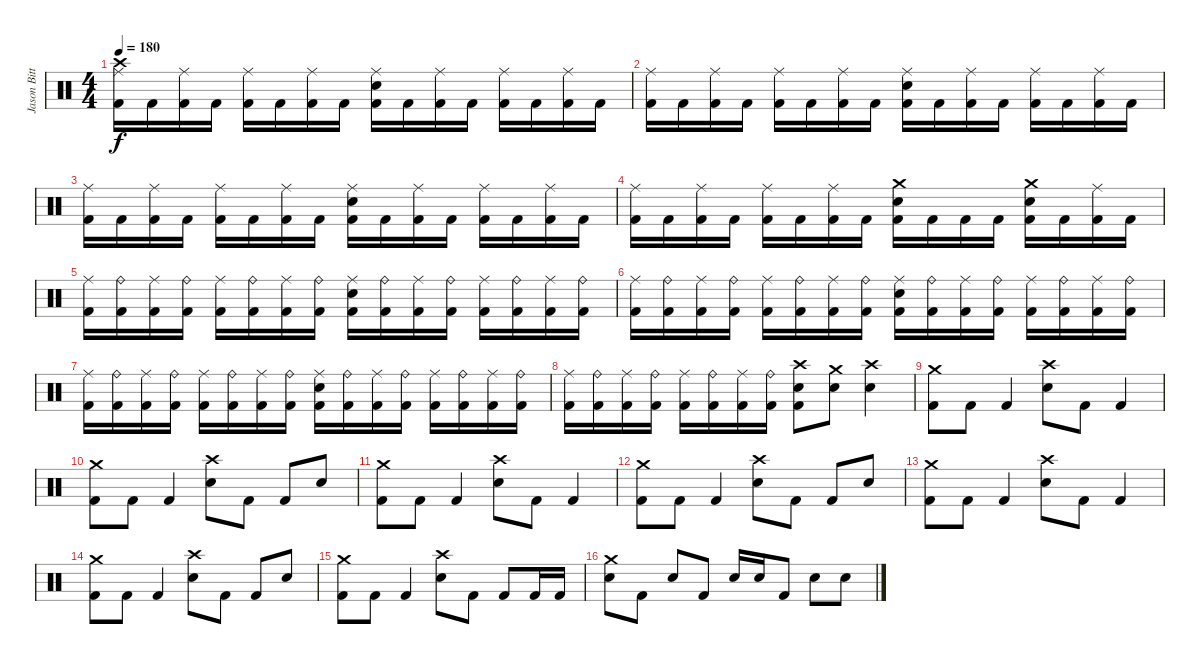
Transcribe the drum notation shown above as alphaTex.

\track ("Jason Bittner" "Jason Bitt") {instrument percussion}
\staff {score}
\articulation defaults
\ts (4 4)
\tempo 180
\clef neutral
\ks c
("Kick (hit) 2" "Crash high (hit)" "Ride (middle)").16{dy f} "Kick (hit) 2".16 ("Kick (hit) 2" "Ride (middle)").16 "Kick (hit) 2".16 ("Kick (hit) 2" "Ride (middle)").16 "Kick (hit) 2".16 ("Kick (hit) 2" "Ride (middle)").16 "Kick (hit) 2".16 ("Kick (hit) 2" "Electric Snare (hit)" "Ride (middle)").16 "Kick (hit) 2".16 ("Kick (hit) 2" "Ride (middle)").16 "Kick (hit) 2".16 ("Kick (hit) 2" "Ride (middle)").16 "Kick (hit) 2".16 ("Kick (hit) 2" "Ride (middle)").16 "Kick (hit) 2".16 |
("Kick (hit) 2" "Ride (middle)").16 "Kick (hit) 2".16 ("Kick (hit) 2" "Ride (middle)").16 "Kick (hit) 2".16 ("Kick (hit) 2" "Ride (middle)").16 "Kick (hit) 2".16 ("Kick (hit) 2" "Ride (middle)").16 "Kick (hit) 2".16 ("Kick (hit) 2" "Electric Snare (hit)" "Ride (middle)").16 "Kick (hit) 2".16 ("Kick (hit) 2" "Ride (middle)").16 "Kick (hit) 2".16 ("Kick (hit) 2" "Ride (middle)").16 "Kick (hit) 2".16 ("Kick (hit) 2" "Ride (middle)").16 "Kick (hit) 2".16 |
("Kick (hit) 2" "Ride (middle)").16 "Kick (hit) 2".16 ("Kick (hit) 2" "Ride (middle)").16 "Kick (hit) 2".16 ("Kick (hit) 2" "Ride (middle)").16 "Kick (hit) 2".16 ("Kick (hit) 2" "Ride (middle)").16 "Kick (hit) 2".16 ("Kick (hit) 2" "Electric Snare (hit)" "Ride (middle)").16 "Kick (hit) 2".16 ("Kick (hit) 2" "Ride (middle)").16 "Kick (hit) 2".16 ("Kick (hit) 2" "Ride (middle)").16 "Kick (hit) 2".16 ("Kick (hit) 2" "Ride (middle)").16 "Kick (hit) 2".16 |
("Kick (hit) 2" "Ride (middle)").16 "Kick (hit) 2".16 ("Kick (hit) 2" "Ride (middle)").16 "Kick (hit) 2".16 ("Kick (hit) 2" "Ride (middle)").16 "Kick (hit) 2".16 ("Kick (hit) 2" "Ride (middle)").16 "Kick (hit) 2".16 ("Kick (hit) 2" "Electric Snare (hit)" "Crash medium (hit)").16 "Kick (hit) 2".16 "Kick (hit) 2".16 "Kick (hit) 2".16 ("Kick (hit) 2" "Electric Snare (hit)" "Crash medium (hit)").16 "Kick (hit) 2".16 ("Kick (hit) 2" "Ride (middle)").16 "Kick (hit) 2".16 |
("Kick (hit) 2" "Ride (middle)").16 ("Kick (hit) 2" "Ride (bell)").16 ("Kick (hit) 2" "Ride (middle)").16 ("Kick (hit) 2" "Ride (bell)").16 ("Kick (hit) 2" "Ride (middle)").16 ("Kick (hit) 2" "Ride (bell)").16 ("Kick (hit) 2" "Ride (middle)").16 ("Kick (hit) 2" "Ride (bell)").16 ("Kick (hit) 2" "Electric Snare (hit)" "Ride (middle)").16 ("Kick (hit) 2" "Ride (bell)").16 ("Kick (hit) 2" "Ride (middle)").16 ("Kick (hit) 2" "Ride (bell)").16 ("Kick (hit) 2" "Ride (middle)").16 ("Kick (hit) 2" "Ride (bell)").16 ("Kick (hit) 2" "Ride (middle)").16 ("Kick (hit) 2" "Ride (bell)").16 |
("Kick (hit) 2" "Ride (middle)").16 ("Kick (hit) 2" "Ride (bell)").16 ("Kick (hit) 2" "Ride (middle)").16 ("Kick (hit) 2" "Ride (bell)").16 ("Kick (hit) 2" "Ride (middle)").16 ("Kick (hit) 2" "Ride (bell)").16 ("Kick (hit) 2" "Ride (middle)").16 ("Kick (hit) 2" "Ride (bell)").16 ("Kick (hit) 2" "Electric Snare (hit)" "Ride (middle)").16 ("Kick (hit) 2" "Ride (bell)").16 ("Kick (hit) 2" "Ride (middle)").16 ("Kick (hit) 2" "Ride (bell)").16 ("Kick (hit) 2" "Ride (middle)").16 ("Kick (hit) 2" "Ride (bell)").16 ("Kick (hit) 2" "Ride (middle)").16 ("Kick (hit) 2" "Ride (bell)").16 |
("Kick (hit) 2" "Ride (middle)").16 ("Kick (hit) 2" "Ride (bell)").16 ("Kick (hit) 2" "Ride (middle)").16 ("Kick (hit) 2" "Ride (bell)").16 ("Kick (hit) 2" "Ride (middle)").16 ("Kick (hit) 2" "Ride (bell)").16 ("Kick (hit) 2" "Ride (middle)").16 ("Kick (hit) 2" "Ride (bell)").16 ("Kick (hit) 2" "Electric Snare (hit)" "Ride (middle)").16 ("Kick (hit) 2" "Ride (bell)").16 ("Kick (hit) 2" "Ride (middle)").16 ("Kick (hit) 2" "Ride (bell)").16 ("Kick (hit) 2" "Ride (middle)").16 ("Kick (hit) 2" "Ride (bell)").16 ("Kick (hit) 2" "Ride (middle)").16 ("Kick (hit) 2" "Ride (bell)").16 |
("Kick (hit) 2" "Ride (middle)").16 ("Kick (hit) 2" "Ride (bell)").16 ("Kick (hit) 2" "Ride (middle)").16 ("Kick (hit) 2" "Ride (bell)").16 ("Kick (hit) 2" "Ride (middle)").16 ("Kick (hit) 2" "Ride (bell)").16 ("Kick (hit) 2" "Ride (middle)").16 ("Kick (hit) 2" "Ride (bell)").16 ("Kick (hit) 2" "Electric Snare (hit)" "Crash high (hit)").8 ("Electric Snare (hit)" "Crash medium (hit)").8 ("Electric Snare (hit)" "Crash high (hit)").4 |
("Crash medium (hit)" "Kick (hit) 2").8 "Kick (hit) 2".8 "Kick (hit) 2".4 ("Crash high (hit)" "Electric Snare (hit)").8 "Kick (hit) 2".8 "Kick (hit) 2".4 |
("Crash medium (hit)" "Kick (hit) 2").8 "Kick (hit) 2".8 "Kick (hit) 2".4 ("Crash high (hit)" "Electric Snare (hit)").8 "Kick (hit) 2".8 "Kick (hit) 2".8 "Electric Snare (hit)".8 |
("Crash medium (hit)" "Kick (hit) 2").8 "Kick (hit) 2".8 "Kick (hit) 2".4 ("Crash high (hit)" "Electric Snare (hit)").8 "Kick (hit) 2".8 "Kick (hit) 2".4 |
("Crash medium (hit)" "Kick (hit) 2").8 "Kick (hit) 2".8 "Kick (hit) 2".4 ("Crash high (hit)" "Electric Snare (hit)").8 "Kick (hit) 2".8 "Kick (hit) 2".8 "Electric Snare (hit)".8 |
("Crash medium (hit)" "Kick (hit) 2").8 "Kick (hit) 2".8 "Kick (hit) 2".4 ("Crash high (hit)" "Electric Snare (hit)").8 "Kick (hit) 2".8 "Kick (hit) 2".4 |
("Crash medium (hit)" "Kick (hit) 2").8 "Kick (hit) 2".8 "Kick (hit) 2".4 ("Crash high (hit)" "Electric Snare (hit)").8 "Kick (hit) 2".8 "Kick (hit) 2".8 "Electric Snare (hit)".8 |
("Crash medium (hit)" "Kick (hit) 2").8 "Kick (hit) 2".8 "Kick (hit) 2".4 ("Crash high (hit)" "Electric Snare (hit)").8 "Kick (hit) 2".8 "Kick (hit) 2".8 "Kick (hit) 2".16 "Kick (hit) 2".16 |
("Crash medium (hit)" "Electric Snare (hit)").8 "Kick (hit) 2".8 "Electric Snare (hit)".8 "Kick (hit) 2".8 "Electric Snare (hit)".16 "Electric Snare (hit)".16 "Kick (hit) 2".8 "Electric Snare (hit)".8 "Electric Snare (hit)".8
